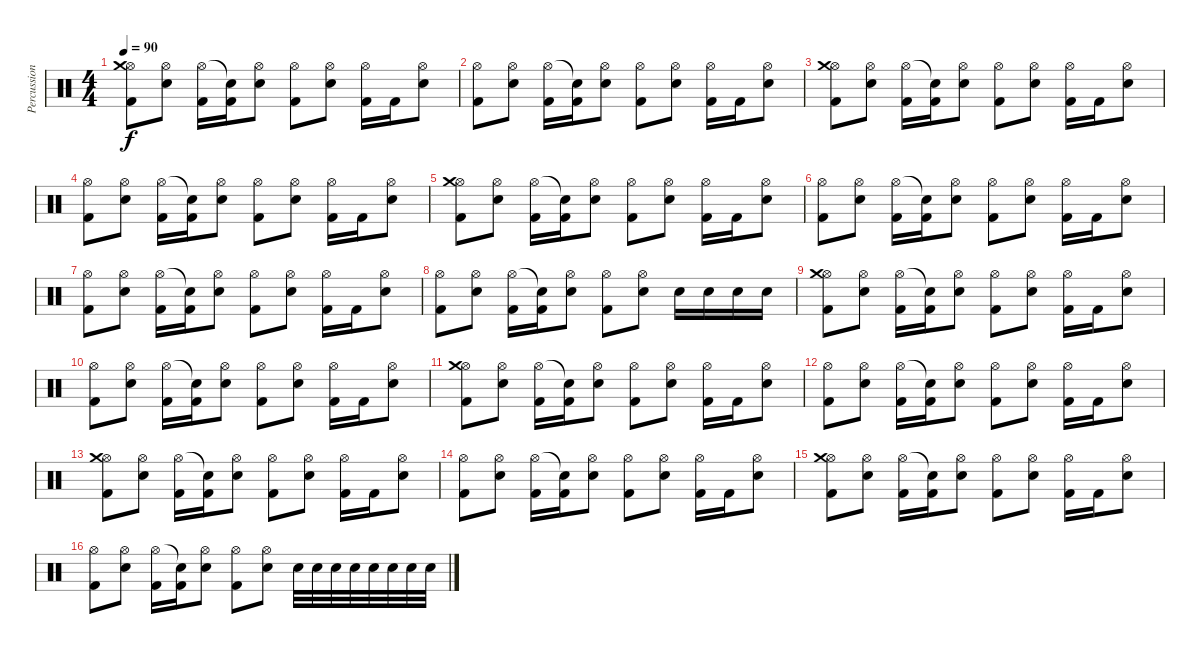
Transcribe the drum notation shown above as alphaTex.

\track ("Percussion" "Percussion") {instrument percussion}
\staff {score}
\articulation defaults
\ts (4 4)
\tempo 90
\clef neutral
\ks c
("Hi-Hat (open)" "Crash medium (hit)" "Kick (hit) 2").8{dy f} ("Hi-Hat (open)" "Snare (hit) 2").8 ("Hi-Hat (open)" "Kick (hit) 2").16 ("Snare (hit)"{t} "Kick (hit) 2").16 ("Hi-Hat (open)" "Snare (hit) 2").8 ("Hi-Hat (open)" "Kick (hit) 2").8 ("Hi-Hat (open)" "Snare (hit) 2").8 ("Hi-Hat (open)" "Kick (hit) 2").16 "Kick (hit) 2".16 ("Hi-Hat (open)" "Snare (hit) 2").8 |
("Hi-Hat (open)" "Kick (hit) 2").8 ("Hi-Hat (open)" "Snare (hit) 2").8 ("Hi-Hat (open)" "Kick (hit) 2").16 ("Snare (hit)"{t} "Kick (hit) 2").16 ("Hi-Hat (open)" "Snare (hit) 2").8 ("Hi-Hat (open)" "Kick (hit) 2").8 ("Hi-Hat (open)" "Snare (hit) 2").8 ("Hi-Hat (open)" "Kick (hit) 2").16 "Kick (hit) 2".16 ("Hi-Hat (open)" "Snare (hit) 2").8 |
("Hi-Hat (open)" "Crash medium (hit)" "Kick (hit) 2").8 ("Hi-Hat (open)" "Snare (hit) 2").8 ("Hi-Hat (open)" "Kick (hit) 2").16 ("Snare (hit)"{t} "Kick (hit) 2").16 ("Hi-Hat (open)" "Snare (hit) 2").8 ("Hi-Hat (open)" "Kick (hit) 2").8 ("Hi-Hat (open)" "Snare (hit) 2").8 ("Hi-Hat (open)" "Kick (hit) 2").16 "Kick (hit) 2".16 ("Hi-Hat (open)" "Snare (hit) 2").8 |
("Hi-Hat (open)" "Kick (hit) 2").8 ("Hi-Hat (open)" "Snare (hit) 2").8 ("Hi-Hat (open)" "Kick (hit) 2").16 ("Snare (hit)"{t} "Kick (hit) 2").16 ("Hi-Hat (open)" "Snare (hit) 2").8 ("Hi-Hat (open)" "Kick (hit) 2").8 ("Hi-Hat (open)" "Snare (hit) 2").8 ("Hi-Hat (open)" "Kick (hit) 2").16 "Kick (hit) 2".16 ("Hi-Hat (open)" "Snare (hit) 2").8 |
("Hi-Hat (open)" "Crash medium (hit)" "Kick (hit) 2").8 ("Hi-Hat (open)" "Snare (hit) 2").8 ("Hi-Hat (open)" "Kick (hit) 2").16 ("Snare (hit)"{t} "Kick (hit) 2").16 ("Hi-Hat (open)" "Snare (hit) 2").8 ("Hi-Hat (open)" "Kick (hit) 2").8 ("Hi-Hat (open)" "Snare (hit) 2").8 ("Hi-Hat (open)" "Kick (hit) 2").16 "Kick (hit) 2".16 ("Hi-Hat (open)" "Snare (hit) 2").8 |
("Hi-Hat (open)" "Kick (hit) 2").8 ("Hi-Hat (open)" "Snare (hit) 2").8 ("Hi-Hat (open)" "Kick (hit) 2").16 ("Snare (hit)"{t} "Kick (hit) 2").16 ("Hi-Hat (open)" "Snare (hit) 2").8 ("Hi-Hat (open)" "Kick (hit) 2").8 ("Hi-Hat (open)" "Snare (hit) 2").8 ("Hi-Hat (open)" "Kick (hit) 2").16 "Kick (hit) 2".16 ("Hi-Hat (open)" "Snare (hit) 2").8 |
("Hi-Hat (open)" "Kick (hit) 2").8 ("Hi-Hat (open)" "Snare (hit) 2").8 ("Hi-Hat (open)" "Kick (hit) 2").16 ("Snare (hit)"{t} "Kick (hit) 2").16 ("Hi-Hat (open)" "Snare (hit) 2").8 ("Hi-Hat (open)" "Kick (hit) 2").8 ("Hi-Hat (open)" "Snare (hit) 2").8 ("Hi-Hat (open)" "Kick (hit) 2").16 "Kick (hit) 2".16 ("Hi-Hat (open)" "Snare (hit) 2").8 |
("Hi-Hat (open)" "Kick (hit) 2").8 ("Hi-Hat (open)" "Snare (hit) 2").8 ("Hi-Hat (open)" "Kick (hit) 2").16 ("Snare (hit)"{t} "Kick (hit) 2").16 ("Hi-Hat (open)" "Snare (hit) 2").8 ("Hi-Hat (open)" "Kick (hit) 2").8 ("Hi-Hat (open)" "Snare (hit) 2").8 "Snare (hit) 2".16 "Snare (hit) 2".16 "Snare (hit) 2".16 "Snare (hit) 2".16 |
("Hi-Hat (open)" "Crash medium (hit)" "Kick (hit) 2").8 ("Hi-Hat (open)" "Snare (hit) 2").8 ("Hi-Hat (open)" "Kick (hit) 2").16 ("Snare (hit)"{t} "Kick (hit) 2").16 ("Hi-Hat (open)" "Snare (hit) 2").8 ("Hi-Hat (open)" "Kick (hit) 2").8 ("Hi-Hat (open)" "Snare (hit) 2").8 ("Hi-Hat (open)" "Kick (hit) 2").16 "Kick (hit) 2".16 ("Hi-Hat (open)" "Snare (hit) 2").8 |
("Hi-Hat (open)" "Kick (hit) 2").8 ("Hi-Hat (open)" "Snare (hit) 2").8 ("Hi-Hat (open)" "Kick (hit) 2").16 ("Snare (hit)"{t} "Kick (hit) 2").16 ("Hi-Hat (open)" "Snare (hit) 2").8 ("Hi-Hat (open)" "Kick (hit) 2").8 ("Hi-Hat (open)" "Snare (hit) 2").8 ("Hi-Hat (open)" "Kick (hit) 2").16 "Kick (hit) 2".16 ("Hi-Hat (open)" "Snare (hit) 2").8 |
("Hi-Hat (open)" "Crash medium (hit)" "Kick (hit) 2").8 ("Hi-Hat (open)" "Snare (hit) 2").8 ("Hi-Hat (open)" "Kick (hit) 2").16 ("Snare (hit)"{t} "Kick (hit) 2").16 ("Hi-Hat (open)" "Snare (hit) 2").8 ("Hi-Hat (open)" "Kick (hit) 2").8 ("Hi-Hat (open)" "Snare (hit) 2").8 ("Hi-Hat (open)" "Kick (hit) 2").16 "Kick (hit) 2".16 ("Hi-Hat (open)" "Snare (hit) 2").8 |
("Hi-Hat (open)" "Kick (hit) 2").8 ("Hi-Hat (open)" "Snare (hit) 2").8 ("Hi-Hat (open)" "Kick (hit) 2").16 ("Snare (hit)"{t} "Kick (hit) 2").16 ("Hi-Hat (open)" "Snare (hit) 2").8 ("Hi-Hat (open)" "Kick (hit) 2").8 ("Hi-Hat (open)" "Snare (hit) 2").8 ("Hi-Hat (open)" "Kick (hit) 2").16 "Kick (hit) 2".16 ("Hi-Hat (open)" "Snare (hit) 2").8 |
("Hi-Hat (open)" "Crash medium (hit)" "Kick (hit) 2").8 ("Hi-Hat (open)" "Snare (hit) 2").8 ("Hi-Hat (open)" "Kick (hit) 2").16 ("Snare (hit)"{t} "Kick (hit) 2").16 ("Hi-Hat (open)" "Snare (hit) 2").8 ("Hi-Hat (open)" "Kick (hit) 2").8 ("Hi-Hat (open)" "Snare (hit) 2").8 ("Hi-Hat (open)" "Kick (hit) 2").16 "Kick (hit) 2".16 ("Hi-Hat (open)" "Snare (hit) 2").8 |
("Hi-Hat (open)" "Kick (hit) 2").8 ("Hi-Hat (open)" "Snare (hit) 2").8 ("Hi-Hat (open)" "Kick (hit) 2").16 ("Snare (hit)"{t} "Kick (hit) 2").16 ("Hi-Hat (open)" "Snare (hit) 2").8 ("Hi-Hat (open)" "Kick (hit) 2").8 ("Hi-Hat (open)" "Snare (hit) 2").8 ("Hi-Hat (open)" "Kick (hit) 2").16 "Kick (hit) 2".16 ("Hi-Hat (open)" "Snare (hit) 2").8 |
("Hi-Hat (open)" "Crash medium (hit)" "Kick (hit) 2").8 ("Hi-Hat (open)" "Snare (hit) 2").8 ("Hi-Hat (open)" "Kick (hit) 2").16 ("Snare (hit)"{t} "Kick (hit) 2").16 ("Hi-Hat (open)" "Snare (hit) 2").8 ("Hi-Hat (open)" "Kick (hit) 2").8 ("Hi-Hat (open)" "Snare (hit) 2").8 ("Hi-Hat (open)" "Kick (hit) 2").16 "Kick (hit) 2".16 ("Hi-Hat (open)" "Snare (hit) 2").8 |
("Hi-Hat (open)" "Kick (hit) 2").8 ("Hi-Hat (open)" "Snare (hit) 2").8 ("Hi-Hat (open)" "Kick (hit) 2").16 ("Snare (hit)"{t} "Kick (hit) 2").16 ("Hi-Hat (open)" "Snare (hit) 2").8 ("Hi-Hat (open)" "Kick (hit) 2").8 ("Hi-Hat (open)" "Snare (hit) 2").8 "Snare (hit) 2".32 "Snare (hit) 2".32 "Snare (hit) 2".32 "Snare (hit) 2".32 "Snare (hit) 2".32 "Snare (hit) 2".32 "Snare (hit) 2".32 "Snare (hit) 2".32
